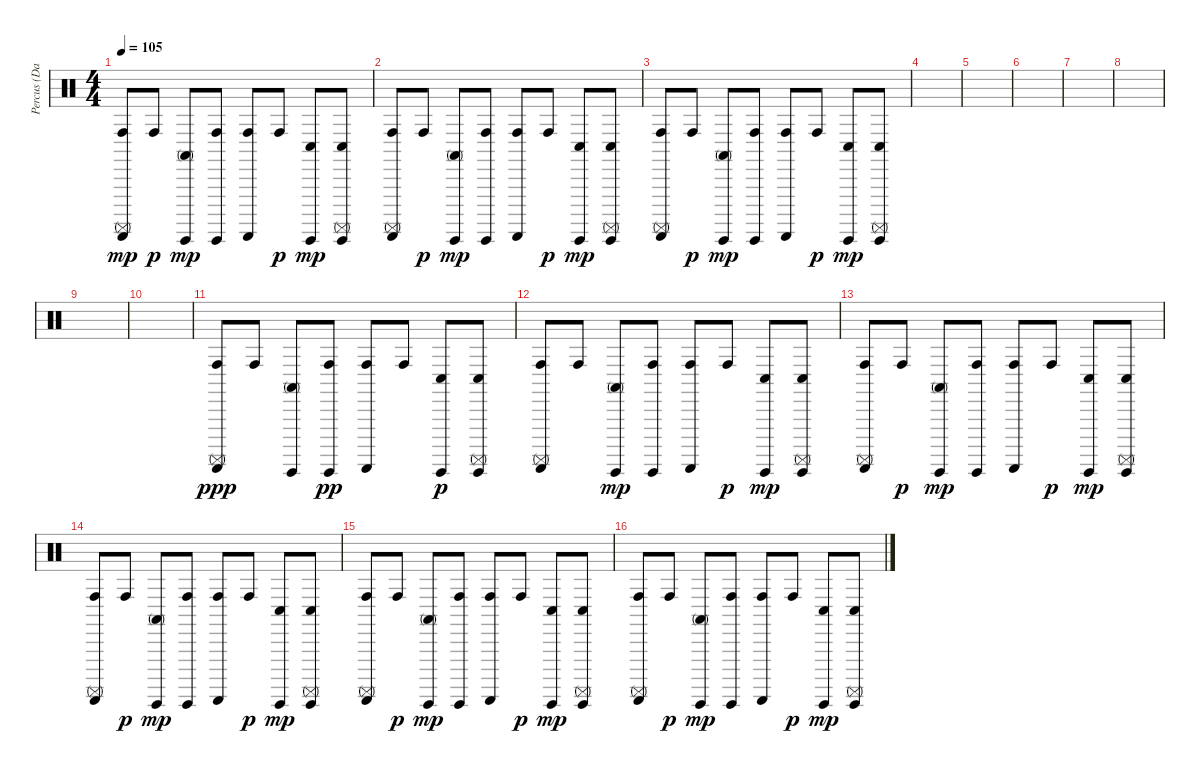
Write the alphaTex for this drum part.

\track ("Percus (Daniel+Mali)" "Percus (Da") {instrument percussion}
\staff {score}
\articulation defaults
\ts (4 4)
\tempo 105
\clef neutral
\ks c
("Conga high (hit)" "Guiro (scrap-return)" "Surdo (mute)").8{dy mp} "Conga high (hit)".8{dy p} ("Conga high (mute)" "Guiro (hit)").8{dy mp} ("Conga high (hit)" "Guiro (hit)").8 ("Conga high (hit)" "Guiro (scrap-return)").8 "Conga high (hit)".8{dy p} ("Conga low (hit)" "Guiro (hit)").8{dy mp} ("Conga low (hit)" "Guiro (hit)" "Surdo (mute)").8 |
("Conga high (hit)" "Guiro (scrap-return)" "Surdo (mute)").8 "Conga high (hit)".8{dy p} ("Conga high (mute)" "Guiro (hit)").8{dy mp} ("Conga high (hit)" "Guiro (hit)").8 ("Conga high (hit)" "Guiro (scrap-return)").8 "Conga high (hit)".8{dy p} ("Conga low (hit)" "Guiro (hit)").8{dy mp} ("Conga low (hit)" "Guiro (hit)" "Surdo (mute)").8 |
("Conga high (hit)" "Guiro (scrap-return)" "Surdo (mute)").8 "Conga high (hit)".8{dy p} ("Conga high (mute)" "Guiro (hit)").8{dy mp} ("Conga high (hit)" "Guiro (hit)").8 ("Conga high (hit)" "Guiro (scrap-return)").8 "Conga high (hit)".8{dy p} ("Conga low (hit)" "Guiro (hit)").8{dy mp} ("Conga low (hit)" "Guiro (hit)" "Surdo (mute)").8 |
|
|
|
|
|
|
|
("Conga high (hit)" "Guiro (scrap-return)" "Surdo (mute)").8{dy ppp} "Conga high (hit)".8 ("Conga high (mute)" "Guiro (hit)").8 ("Conga high (hit)" "Guiro (hit)").8{dy pp} ("Conga high (hit)" "Guiro (scrap-return)").8 "Conga high (hit)".8 ("Conga low (hit)" "Guiro (hit)").8{dy p} ("Conga low (hit)" "Guiro (hit)" "Surdo (mute)").8 |
("Conga high (hit)" "Guiro (scrap-return)" "Surdo (mute)").8 "Conga high (hit)".8 ("Conga high (mute)" "Guiro (hit)").8{dy mp} ("Conga high (hit)" "Guiro (hit)").8 ("Conga high (hit)" "Guiro (scrap-return)").8 "Conga high (hit)".8{dy p} ("Conga low (hit)" "Guiro (hit)").8{dy mp} ("Conga low (hit)" "Guiro (hit)" "Surdo (mute)").8 |
("Conga high (hit)" "Guiro (scrap-return)" "Surdo (mute)").8 "Conga high (hit)".8{dy p} ("Conga high (mute)" "Guiro (hit)").8{dy mp} ("Conga high (hit)" "Guiro (hit)").8 ("Conga high (hit)" "Guiro (scrap-return)").8 "Conga high (hit)".8{dy p} ("Conga low (hit)" "Guiro (hit)").8{dy mp} ("Conga low (hit)" "Guiro (hit)" "Surdo (mute)").8 |
("Conga high (hit)" "Guiro (scrap-return)" "Surdo (mute)").8 "Conga high (hit)".8{dy p} ("Conga high (mute)" "Guiro (hit)").8{dy mp} ("Conga high (hit)" "Guiro (hit)").8 ("Conga high (hit)" "Guiro (scrap-return)").8 "Conga high (hit)".8{dy p} ("Conga low (hit)" "Guiro (hit)").8{dy mp} ("Conga low (hit)" "Guiro (hit)" "Surdo (mute)").8 |
("Conga high (hit)" "Guiro (scrap-return)" "Surdo (mute)").8 "Conga high (hit)".8{dy p} ("Conga high (mute)" "Guiro (hit)").8{dy mp} ("Conga high (hit)" "Guiro (hit)").8 ("Conga high (hit)" "Guiro (scrap-return)").8 "Conga high (hit)".8{dy p} ("Conga low (hit)" "Guiro (hit)").8{dy mp} ("Conga low (hit)" "Guiro (hit)" "Surdo (mute)").8 |
("Conga high (hit)" "Guiro (scrap-return)" "Surdo (mute)").8 "Conga high (hit)".8{dy p} ("Conga high (mute)" "Guiro (hit)").8{dy mp} ("Conga high (hit)" "Guiro (hit)").8 ("Conga high (hit)" "Guiro (scrap-return)").8 "Conga high (hit)".8{dy p} ("Conga low (hit)" "Guiro (hit)").8{dy mp} ("Conga low (hit)" "Guiro (hit)" "Surdo (mute)").8
